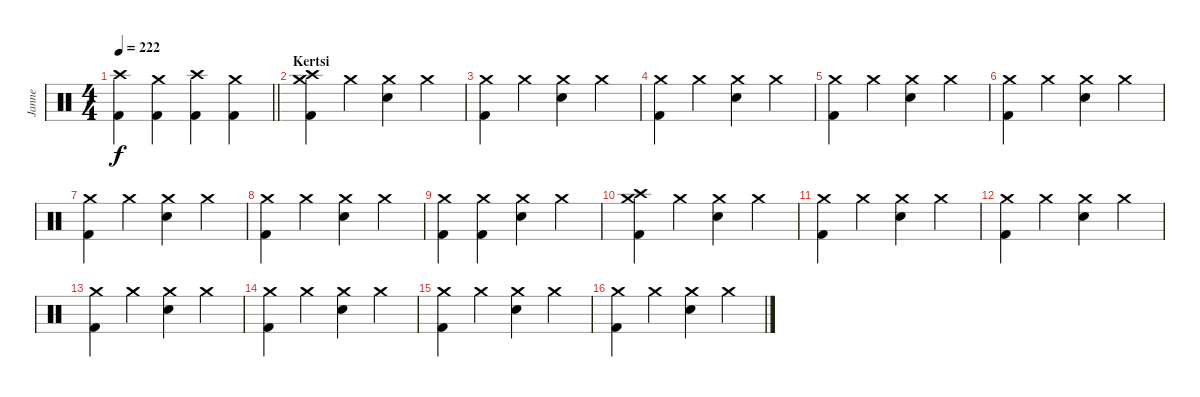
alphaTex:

\track ("Janne" "Janne") {instrument percussion}
\staff {score}
\articulation defaults
\ts (4 4)
\tempo 222
\clef neutral
\barLineRight lightlight
\ks c
("Crash high (hit)" "Kick (hit) 2").4{dy f} ("Crash medium (hit)" "Kick (hit) 2").4 ("Crash high (hit)" "Kick (hit) 2").4 ("Crash medium (hit)" "Kick (hit) 2").4 |
\section ("" "Kertsi")
("Crash medium (hit)" "Crash high (hit)" "Kick (hit) 2").4 "Crash medium (hit)".4 ("Crash medium (hit)" "Electric Snare (hit)").4 "Crash medium (hit)".4 |
("Crash medium (hit)" "Kick (hit) 2").4 "Crash medium (hit)".4 ("Crash medium (hit)" "Electric Snare (hit)").4 "Crash medium (hit)".4 |
("Crash medium (hit)" "Kick (hit) 2").4 "Crash medium (hit)".4 ("Crash medium (hit)" "Electric Snare (hit)").4 "Crash medium (hit)".4 |
("Crash medium (hit)" "Kick (hit) 2").4 "Crash medium (hit)".4 ("Crash medium (hit)" "Electric Snare (hit)").4 "Crash medium (hit)".4 |
("Crash medium (hit)" "Kick (hit) 2").4 "Crash medium (hit)".4 ("Crash medium (hit)" "Electric Snare (hit)").4 "Crash medium (hit)".4 |
("Crash medium (hit)" "Kick (hit) 2").4 "Crash medium (hit)".4 ("Crash medium (hit)" "Electric Snare (hit)").4 "Crash medium (hit)".4 |
("Crash medium (hit)" "Kick (hit) 2").4 "Crash medium (hit)".4 ("Crash medium (hit)" "Electric Snare (hit)").4 "Crash medium (hit)".4 |
("Crash medium (hit)" "Kick (hit) 2").4 ("Crash medium (hit)" "Kick (hit) 2").4 ("Crash medium (hit)" "Electric Snare (hit)").4 "Crash medium (hit)".4 |
("Crash medium (hit)" "Crash high (hit)" "Kick (hit) 2").4 "Crash medium (hit)".4 ("Crash medium (hit)" "Electric Snare (hit)").4 "Crash medium (hit)".4 |
("Crash medium (hit)" "Kick (hit) 2").4 "Crash medium (hit)".4 ("Crash medium (hit)" "Electric Snare (hit)").4 "Crash medium (hit)".4 |
("Crash medium (hit)" "Kick (hit) 2").4 "Crash medium (hit)".4 ("Crash medium (hit)" "Electric Snare (hit)").4 "Crash medium (hit)".4 |
("Crash medium (hit)" "Kick (hit) 2").4 "Crash medium (hit)".4 ("Crash medium (hit)" "Electric Snare (hit)").4 "Crash medium (hit)".4 |
("Crash medium (hit)" "Kick (hit) 2").4 "Crash medium (hit)".4 ("Crash medium (hit)" "Electric Snare (hit)").4 "Crash medium (hit)".4 |
("Crash medium (hit)" "Kick (hit) 2").4 "Crash medium (hit)".4 ("Crash medium (hit)" "Electric Snare (hit)").4 "Crash medium (hit)".4 |
("Crash medium (hit)" "Kick (hit) 2").4 "Crash medium (hit)".4 ("Crash medium (hit)" "Electric Snare (hit)").4 "Crash medium (hit)".4
